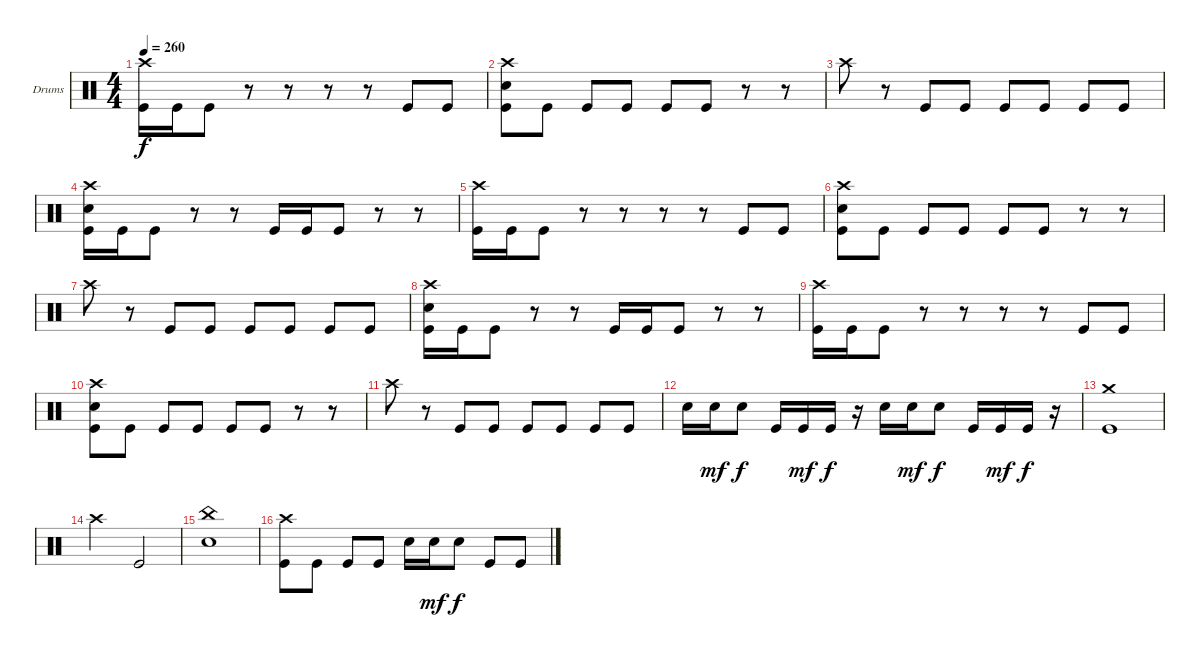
\bracketExtendMode groupsimilarinstruments
\firstSystemTrackNameOrientation horizontal
\otherSystemsTrackNameOrientation horizontal
\track ("Drumkit" "Drums") {instrument percussion}
\staff {score}
\articulation defaults
\ts (4 4)
\tempo 260
\clef neutral
\ks c
("Crash high (hit)" "Kick (hit)").16{dy f} "Kick (hit)".16 "Kick (hit)".8 r.8 r.8 r.8 r.8 "Kick (hit)".8 "Kick (hit)".8 |
("Crash high (hit)" "Snare (hit) 2" "Kick (hit)").8 "Kick (hit)".8 "Kick (hit)".8 "Kick (hit)".8 "Kick (hit)".8 "Kick (hit)".8 r.8 r.8 |
"Crash high (hit)".8 r.8 "Kick (hit)".8 "Kick (hit)".8 "Kick (hit)".8 "Kick (hit)".8 "Kick (hit)".8 "Kick (hit)".8 |
("Crash high (hit)" "Snare (hit) 2" "Kick (hit)").16 "Kick (hit)".16 "Kick (hit)".8 r.8 r.8 "Kick (hit)".16 "Kick (hit)".16 "Kick (hit)".8 r.8 r.8 |
("Crash high (hit)" "Kick (hit)").16 "Kick (hit)".16 "Kick (hit)".8 r.8 r.8 r.8 r.8 "Kick (hit)".8 "Kick (hit)".8 |
("Crash high (hit)" "Snare (hit) 2" "Kick (hit)").8 "Kick (hit)".8 "Kick (hit)".8 "Kick (hit)".8 "Kick (hit)".8 "Kick (hit)".8 r.8 r.8 |
"Crash high (hit)".8 r.8 "Kick (hit)".8 "Kick (hit)".8 "Kick (hit)".8 "Kick (hit)".8 "Kick (hit)".8 "Kick (hit)".8 |
("Crash high (hit)" "Snare (hit) 2" "Kick (hit)").16 "Kick (hit)".16 "Kick (hit)".8 r.8 r.8 "Kick (hit)".16 "Kick (hit)".16 "Kick (hit)".8 r.8 r.8 |
("Crash high (hit)" "Kick (hit)").16 "Kick (hit)".16 "Kick (hit)".8 r.8 r.8 r.8 r.8 "Kick (hit)".8 "Kick (hit)".8 |
("Crash high (hit)" "Snare (hit) 2" "Kick (hit)").8 "Kick (hit)".8 "Kick (hit)".8 "Kick (hit)".8 "Kick (hit)".8 "Kick (hit)".8 r.8 r.8 |
"Crash high (hit)".8 r.8 "Kick (hit)".8 "Kick (hit)".8 "Kick (hit)".8 "Kick (hit)".8 "Kick (hit)".8 "Kick (hit)".8 |
"Snare (hit) 2".16 "Snare (hit) 2".16{dy mf} "Snare (hit) 2".8{dy f} "Kick (hit)".16 "Kick (hit)".16{dy mf} "Kick (hit)".16{dy f} r.16 "Snare (hit) 2".16 "Snare (hit) 2".16{dy mf} "Snare (hit) 2".8{dy f} "Kick (hit)".16 "Kick (hit)".16{dy mf} "Kick (hit)".16{dy f} r.16 |
("Crash medium (hit)" "Kick (hit)").1 |
"Crash high (hit)".2 "Kick (hit)".2 |
("China (hit)" "Snare (hit) 2").1 |
("Crash high (hit)" "Kick (hit)").8 "Kick (hit)".8 "Kick (hit)".8 "Kick (hit)".8 "Snare (hit) 2".16 "Snare (hit) 2".16{dy mf} "Snare (hit) 2".8{dy f} "Kick (hit)".8 "Kick (hit)".8
